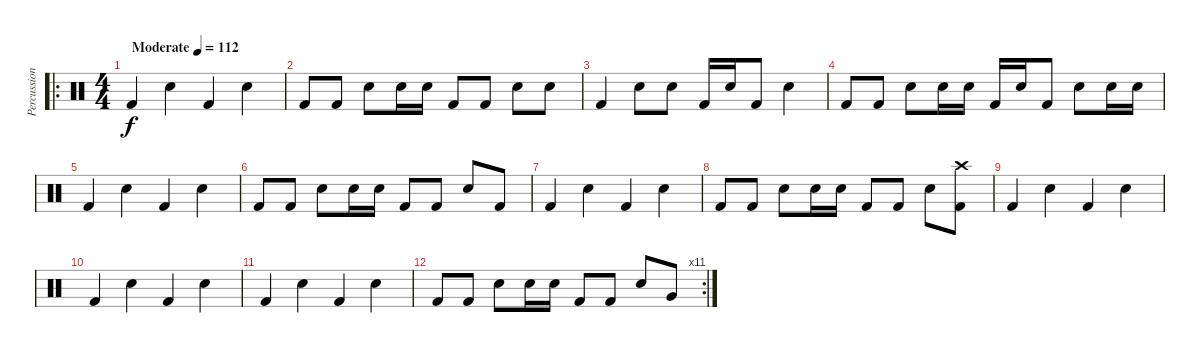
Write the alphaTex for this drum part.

\track ("Percussion" "Percussion") {instrument percussion}
\staff {score}
\articulation defaults
\ro
\ts (4 4)
\tempo (112 "Moderate")
\clef neutral
\ks c "Kick (hit) 2".4{dy f} "Electric Snare (hit)".4 "Kick (hit) 2".4 "Electric Snare (hit)".4
|
"Kick (hit) 2".8 "Kick (hit) 2".8 "Electric Snare (hit)".8 "Electric Snare (hit)".16 "Electric Snare (hit)".16 "Kick (hit) 2".8 "Kick (hit) 2".8 "Electric Snare (hit)".8 "Electric Snare (hit)".8 |
"Kick (hit) 2".4 "Electric Snare (hit)".8 "Electric Snare (hit)".8 "Kick (hit) 2".16 "Electric Snare (hit)".16 "Kick (hit) 2".8 "Electric Snare (hit)".4 |
"Kick (hit) 2".8 "Kick (hit) 2".8 "Electric Snare (hit)".8 "Electric Snare (hit)".16 "Electric Snare (hit)".16 "Kick (hit) 2".16 "Electric Snare (hit)".16 "Kick (hit) 2".8 "Electric Snare (hit)".8 "Electric Snare (hit)".16 "Electric Snare (hit)".16 |
"Kick (hit) 2".4 "Electric Snare (hit)".4 "Kick (hit) 2".4 "Electric Snare (hit)".4 |
"Kick (hit) 2".8 "Kick (hit) 2".8 "Electric Snare (hit)".8 "Electric Snare (hit)".16 "Electric Snare (hit)".16 "Kick (hit) 2".8 "Kick (hit) 2".8 "Electric Snare (hit)".8 "Kick (hit) 2".8 |
"Kick (hit) 2".4 "Electric Snare (hit)".4 "Kick (hit) 2".4 "Electric Snare (hit)".4 |
"Kick (hit) 2".8 "Kick (hit) 2".8 "Electric Snare (hit)".8 "Electric Snare (hit)".16 "Electric Snare (hit)".16 "Kick (hit) 2".8 "Kick (hit) 2".8 "Electric Snare (hit)".8 ("Crash high (hit)" "Kick (hit) 2").8 |
"Kick (hit) 2".4 "Electric Snare (hit)".4 "Kick (hit) 2".4 "Electric Snare (hit)".4 |
"Kick (hit) 2".4 "Electric Snare (hit)".4 "Kick (hit) 2".4 "Electric Snare (hit)".4 |
"Kick (hit) 2".4 "Electric Snare (hit)".4 "Kick (hit) 2".4 "Electric Snare (hit)".4 |
\rc 11 "Kick (hit) 2".8 "Kick (hit) 2".8 "Electric Snare (hit)".8 "Electric Snare (hit)".16 "Electric Snare (hit)".16 "Kick (hit) 2".8 "Kick (hit) 2".8 "Electric Snare (hit)".8 "Very Low Tom (hit)".8
